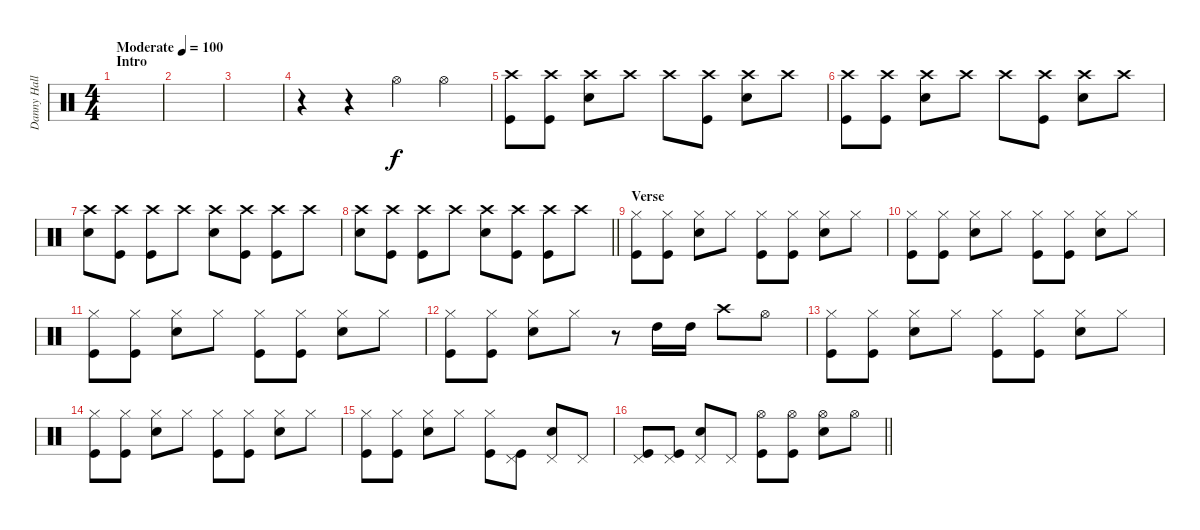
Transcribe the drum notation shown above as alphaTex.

\track ("Danny Hall" "Danny Hall") {instrument percussion}
\staff {score}
\articulation defaults
\ts (4 4)
\section ("" "Intro")
\tempo (100 "Moderate")
\clef neutral
\ks c
|
|
|
r.4 r.4 "Hi-Hat (open)".4 "Hi-Hat (open)".4 |
("Crash high (hit)" "Kick (hit)").8 ("Crash high (hit)" "Kick (hit)").8 ("Crash high (hit)" "Snare (hit) 2").8 "Crash high (hit)".8 "Crash high (hit)".8 ("Crash high (hit)" "Kick (hit)").8 ("Crash high (hit)" "Snare (hit) 2").8 "Crash high (hit)".8 |
("Crash high (hit)" "Kick (hit)").8 ("Crash high (hit)" "Kick (hit)").8 ("Crash high (hit)" "Snare (hit) 2").8 "Crash high (hit)".8 "Crash high (hit)".8 ("Crash high (hit)" "Kick (hit)").8 ("Crash high (hit)" "Snare (hit) 2").8 "Crash high (hit)".8 |
("Crash high (hit)" "Snare (hit) 2").8 ("Crash high (hit)" "Kick (hit)").8 ("Crash high (hit)" "Kick (hit)").8 "Crash high (hit)".8 ("Crash high (hit)" "Snare (hit) 2").8 ("Crash high (hit)" "Kick (hit)").8 ("Crash high (hit)" "Kick (hit)").8 "Crash high (hit)".8 |
\barLineRight lightlight
("Crash high (hit)" "Snare (hit) 2").8 ("Crash high (hit)" "Kick (hit)").8 ("Crash high (hit)" "Kick (hit)").8 "Crash high (hit)".8 ("Crash high (hit)" "Snare (hit) 2").8 ("Crash high (hit)" "Kick (hit)").8 ("Crash high (hit)" "Kick (hit)").8 "Crash high (hit)".8 |
\section ("" "Verse")
("Hi-Hat (closed)" "Kick (hit)").8 ("Hi-Hat (closed)" "Kick (hit)").8 ("Hi-Hat (closed)" "Snare (hit) 2").8 "Hi-Hat (closed)".8 ("Hi-Hat (closed)" "Kick (hit)").8 ("Hi-Hat (closed)" "Kick (hit)").8 ("Hi-Hat (closed)" "Snare (hit) 2").8 "Hi-Hat (closed)".8 |
("Hi-Hat (closed)" "Kick (hit)").8 ("Hi-Hat (closed)" "Kick (hit)").8 ("Hi-Hat (closed)" "Snare (hit) 2").8 "Hi-Hat (closed)".8 ("Hi-Hat (closed)" "Kick (hit)").8 ("Hi-Hat (closed)" "Kick (hit)").8 ("Hi-Hat (closed)" "Snare (hit) 2").8 "Hi-Hat (closed)".8 |
("Hi-Hat (closed)" "Kick (hit)").8 ("Hi-Hat (closed)" "Kick (hit)").8 ("Hi-Hat (closed)" "Snare (hit) 2").8 "Hi-Hat (closed)".8 ("Hi-Hat (closed)" "Kick (hit)").8 ("Hi-Hat (closed)" "Kick (hit)").8 ("Hi-Hat (closed)" "Snare (hit) 2").8 "Hi-Hat (closed)".8 |
("Hi-Hat (closed)" "Kick (hit)").8 ("Hi-Hat (closed)" "Kick (hit)").8 ("Hi-Hat (closed)" "Snare (hit) 2").8 "Hi-Hat (closed)".8 r.8 "High Tom (hit)".16 "High Tom (hit)".16 "Crash high (hit)".8 "Hi-Hat (open)".8 |
("Hi-Hat (closed)" "Kick (hit)").8 ("Hi-Hat (closed)" "Kick (hit)").8 ("Hi-Hat (closed)" "Snare (hit) 2").8 "Hi-Hat (closed)".8 ("Hi-Hat (closed)" "Kick (hit)").8 ("Hi-Hat (closed)" "Kick (hit)").8 ("Hi-Hat (closed)" "Snare (hit) 2").8 "Hi-Hat (closed)".8 |
("Hi-Hat (closed)" "Kick (hit)").8 ("Hi-Hat (closed)" "Kick (hit)").8 ("Hi-Hat (closed)" "Snare (hit) 2").8 "Hi-Hat (closed)".8 ("Hi-Hat (closed)" "Kick (hit)").8 ("Hi-Hat (closed)" "Kick (hit)").8 ("Hi-Hat (closed)" "Snare (hit) 2").8 "Hi-Hat (closed)".8 |
("Hi-Hat (closed)" "Kick (hit)").8 ("Hi-Hat (closed)" "Kick (hit)").8 ("Hi-Hat (closed)" "Snare (hit) 2").8 "Hi-Hat (closed)".8 ("Hi-Hat (closed)" "Kick (hit)").8 ("Pedal Hi-Hat (hit)" "Kick (hit)").8 ("Pedal Hi-Hat (hit)" "Snare (hit) 2").8 "Pedal Hi-Hat (hit)".8 |
\barLineRight lightlight
("Pedal Hi-Hat (hit)" "Kick (hit)").8 ("Pedal Hi-Hat (hit)" "Kick (hit)").8 ("Pedal Hi-Hat (hit)" "Snare (hit) 2").8 "Pedal Hi-Hat (hit)".8 ("Hi-Hat (open)" "Kick (hit)").8 ("Hi-Hat (open)" "Kick (hit)").8 ("Hi-Hat (open)" "Snare (hit) 2").8 "Hi-Hat (open)".8
